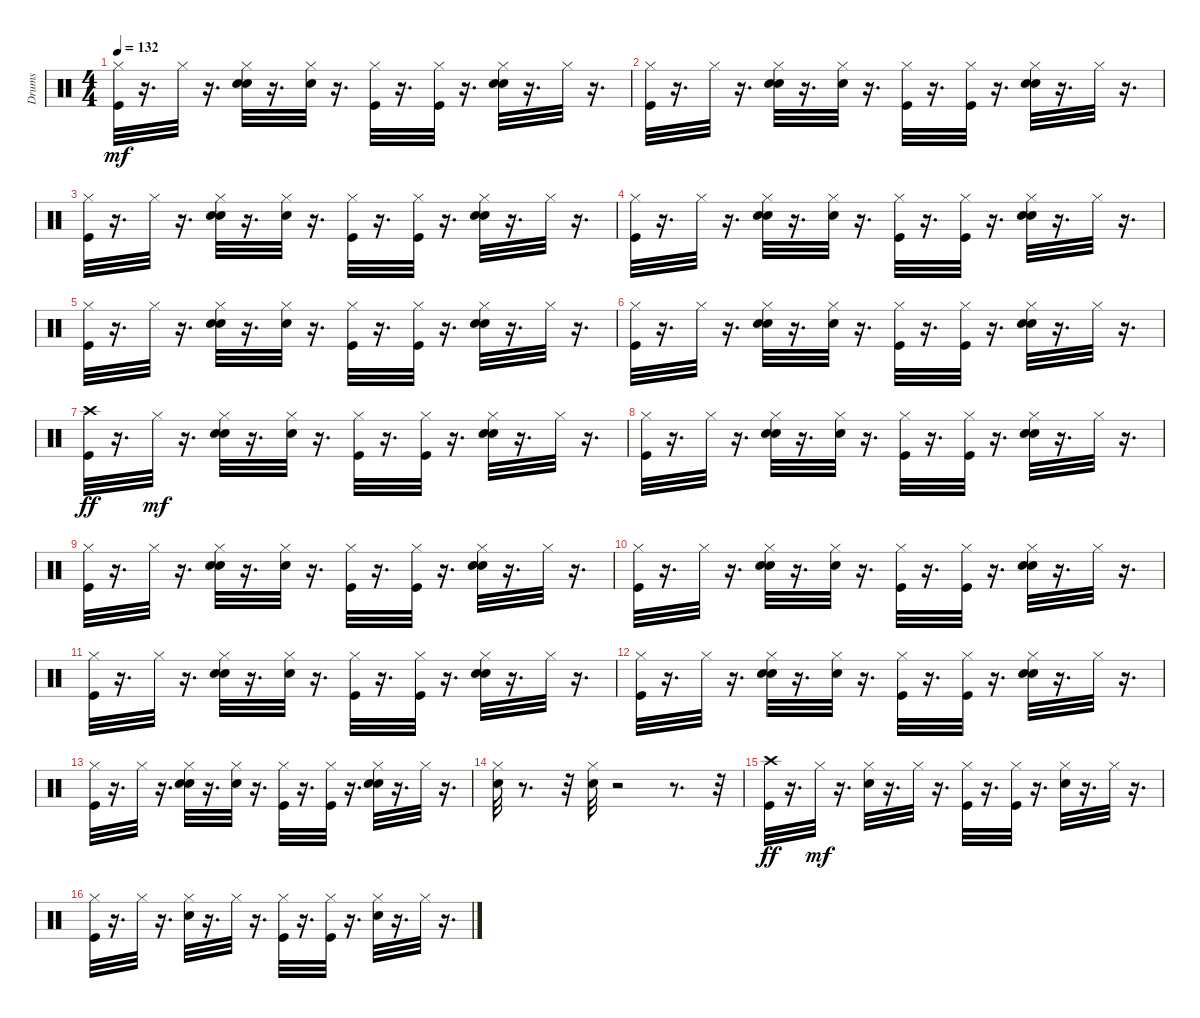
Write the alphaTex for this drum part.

\track ("Drums" "Drums") {instrument percussion}
\staff {score}
\articulation defaults
\ts (4 4)
\tempo 132
\clef neutral
\ks c
("Kick (hit)" "Hi-Hat (closed)").32{dy mf} r.16{d} "Hi-Hat (closed)".32 r.16{d} ("Hand Clap (hit)" "Electric Snare (hit)" "Hi-Hat (closed)").32 r.16{d} ("Hand Clap (hit)" "Hi-Hat (closed)").32 r.16{d} ("Kick (hit)" "Hi-Hat (closed)").32 r.16{d} ("Kick (hit)" "Hi-Hat (closed)").32 r.16{d} ("Hand Clap (hit)" "Electric Snare (hit)" "Hi-Hat (closed)").32 r.16{d} "Hi-Hat (closed)".32 r.16{d} |
("Kick (hit)" "Hi-Hat (closed)").32 r.16{d} "Hi-Hat (closed)".32 r.16{d} ("Hand Clap (hit)" "Electric Snare (hit)" "Hi-Hat (closed)").32 r.16{d} ("Hand Clap (hit)" "Hi-Hat (closed)").32 r.16{d} ("Kick (hit)" "Hi-Hat (closed)").32 r.16{d} ("Kick (hit)" "Hi-Hat (closed)").32 r.16{d} ("Hand Clap (hit)" "Electric Snare (hit)" "Hi-Hat (closed)").32 r.16{d} "Hi-Hat (closed)".32 r.16{d} |
("Kick (hit)" "Hi-Hat (closed)").32 r.16{d} "Hi-Hat (closed)".32 r.16{d} ("Hand Clap (hit)" "Electric Snare (hit)" "Hi-Hat (closed)").32 r.16{d} ("Hand Clap (hit)" "Hi-Hat (closed)").32 r.16{d} ("Kick (hit)" "Hi-Hat (closed)").32 r.16{d} ("Kick (hit)" "Hi-Hat (closed)").32 r.16{d} ("Hand Clap (hit)" "Electric Snare (hit)" "Hi-Hat (closed)").32 r.16{d} "Hi-Hat (closed)".32 r.16{d} |
("Kick (hit)" "Hi-Hat (closed)").32 r.16{d} "Hi-Hat (closed)".32 r.16{d} ("Hand Clap (hit)" "Electric Snare (hit)" "Hi-Hat (closed)").32 r.16{d} ("Hand Clap (hit)" "Hi-Hat (closed)").32 r.16{d} ("Kick (hit)" "Hi-Hat (closed)").32 r.16{d} ("Kick (hit)" "Hi-Hat (closed)").32 r.16{d} ("Hand Clap (hit)" "Electric Snare (hit)" "Hi-Hat (closed)").32 r.16{d} "Hi-Hat (closed)".32 r.16{d} |
("Kick (hit)" "Hi-Hat (closed)").32 r.16{d} "Hi-Hat (closed)".32 r.16{d} ("Hand Clap (hit)" "Electric Snare (hit)" "Hi-Hat (closed)").32 r.16{d} ("Hand Clap (hit)" "Hi-Hat (closed)").32 r.16{d} ("Kick (hit)" "Hi-Hat (closed)").32 r.16{d} ("Kick (hit)" "Hi-Hat (closed)").32 r.16{d} ("Hand Clap (hit)" "Electric Snare (hit)" "Hi-Hat (closed)").32 r.16{d} "Hi-Hat (closed)".32 r.16{d} |
("Kick (hit)" "Hi-Hat (closed)").32 r.16{d} "Hi-Hat (closed)".32 r.16{d} ("Hand Clap (hit)" "Electric Snare (hit)" "Hi-Hat (closed)").32 r.16{d} ("Hand Clap (hit)" "Hi-Hat (closed)").32 r.16{d} ("Kick (hit)" "Hi-Hat (closed)").32 r.16{d} ("Kick (hit)" "Hi-Hat (closed)").32 r.16{d} ("Hand Clap (hit)" "Electric Snare (hit)" "Hi-Hat (closed)").32 r.16{d} "Hi-Hat (closed)".32 r.16{d} |
("Kick (hit)" "Crash high (hit)").32{dy ff} r.16{d} "Hi-Hat (closed)".32{dy mf} r.16{d} ("Hand Clap (hit)" "Electric Snare (hit)" "Hi-Hat (closed)").32 r.16{d} ("Hand Clap (hit)" "Hi-Hat (closed)").32 r.16{d} ("Kick (hit)" "Hi-Hat (closed)").32 r.16{d} ("Kick (hit)" "Hi-Hat (closed)").32 r.16{d} ("Hand Clap (hit)" "Electric Snare (hit)" "Hi-Hat (closed)").32 r.16{d} "Hi-Hat (closed)".32 r.16{d} |
("Kick (hit)" "Hi-Hat (closed)").32 r.16{d} "Hi-Hat (closed)".32 r.16{d} ("Hand Clap (hit)" "Electric Snare (hit)" "Hi-Hat (closed)").32 r.16{d} ("Hand Clap (hit)" "Hi-Hat (closed)").32 r.16{d} ("Kick (hit)" "Hi-Hat (closed)").32 r.16{d} ("Kick (hit)" "Hi-Hat (closed)").32 r.16{d} ("Hand Clap (hit)" "Electric Snare (hit)" "Hi-Hat (closed)").32 r.16{d} "Hi-Hat (closed)".32 r.16{d} |
("Kick (hit)" "Hi-Hat (closed)").32 r.16{d} "Hi-Hat (closed)".32 r.16{d} ("Hand Clap (hit)" "Electric Snare (hit)" "Hi-Hat (closed)").32 r.16{d} ("Hand Clap (hit)" "Hi-Hat (closed)").32 r.16{d} ("Kick (hit)" "Hi-Hat (closed)").32 r.16{d} ("Kick (hit)" "Hi-Hat (closed)").32 r.16{d} ("Hand Clap (hit)" "Electric Snare (hit)" "Hi-Hat (closed)").32 r.16{d} "Hi-Hat (closed)".32 r.16{d} |
("Kick (hit)" "Hi-Hat (closed)").32 r.16{d} "Hi-Hat (closed)".32 r.16{d} ("Hand Clap (hit)" "Electric Snare (hit)" "Hi-Hat (closed)").32 r.16{d} ("Hand Clap (hit)" "Hi-Hat (closed)").32 r.16{d} ("Kick (hit)" "Hi-Hat (closed)").32 r.16{d} ("Kick (hit)" "Hi-Hat (closed)").32 r.16{d} ("Hand Clap (hit)" "Electric Snare (hit)" "Hi-Hat (closed)").32 r.16{d} "Hi-Hat (closed)".32 r.16{d} |
("Kick (hit)" "Hi-Hat (closed)").32 r.16{d} "Hi-Hat (closed)".32 r.16{d} ("Hand Clap (hit)" "Electric Snare (hit)" "Hi-Hat (closed)").32 r.16{d} ("Hand Clap (hit)" "Hi-Hat (closed)").32 r.16{d} ("Kick (hit)" "Hi-Hat (closed)").32 r.16{d} ("Kick (hit)" "Hi-Hat (closed)").32 r.16{d} ("Hand Clap (hit)" "Electric Snare (hit)" "Hi-Hat (closed)").32 r.16{d} "Hi-Hat (closed)".32 r.16{d} |
("Kick (hit)" "Hi-Hat (closed)").32 r.16{d} "Hi-Hat (closed)".32 r.16{d} ("Hand Clap (hit)" "Electric Snare (hit)" "Hi-Hat (closed)").32 r.16{d} ("Hand Clap (hit)" "Hi-Hat (closed)").32 r.16{d} ("Kick (hit)" "Hi-Hat (closed)").32 r.16{d} ("Kick (hit)" "Hi-Hat (closed)").32 r.16{d} ("Hand Clap (hit)" "Electric Snare (hit)" "Hi-Hat (closed)").32 r.16{d} "Hi-Hat (closed)".32 r.16{d} |
("Kick (hit)" "Hi-Hat (closed)").32 r.16{d} "Hi-Hat (closed)".32 r.16{d} ("Hand Clap (hit)" "Electric Snare (hit)" "Hi-Hat (closed)").32 r.16{d} ("Hand Clap (hit)" "Hi-Hat (closed)").32 r.16{d} ("Kick (hit)" "Hi-Hat (closed)").32 r.16{d} ("Kick (hit)" "Hi-Hat (closed)").32 r.16{d} ("Hand Clap (hit)" "Electric Snare (hit)" "Hi-Hat (closed)").32 r.16{d} "Hi-Hat (closed)".32 r.16{d} |
("Electric Snare (hit)" "Hi-Hat (closed)").32 r.8{d} r.32 ("Electric Snare (hit)" "Hi-Hat (closed)").32 r.2 r.8{d} r.32 |
("Kick (hit)" "Crash high (hit)").32{dy ff} r.16{d} "Hi-Hat (closed)".32{dy mf} r.16{d} ("Electric Snare (hit)" "Hi-Hat (closed)").32 r.16{d} "Hi-Hat (closed)".32 r.16{d} ("Kick (hit)" "Hi-Hat (closed)").32 r.16{d} ("Kick (hit)" "Hi-Hat (closed)").32 r.16{d} ("Electric Snare (hit)" "Hi-Hat (closed)").32 r.16{d} "Hi-Hat (closed)".32 r.16{d} |
("Kick (hit)" "Hi-Hat (closed)").32 r.16{d} "Hi-Hat (closed)".32 r.16{d} ("Electric Snare (hit)" "Hi-Hat (closed)").32 r.16{d} "Hi-Hat (closed)".32 r.16{d} ("Kick (hit)" "Hi-Hat (closed)").32 r.16{d} ("Kick (hit)" "Hi-Hat (closed)").32 r.16{d} ("Electric Snare (hit)" "Hi-Hat (closed)").32 r.16{d} "Hi-Hat (closed)".32 r.16{d}
